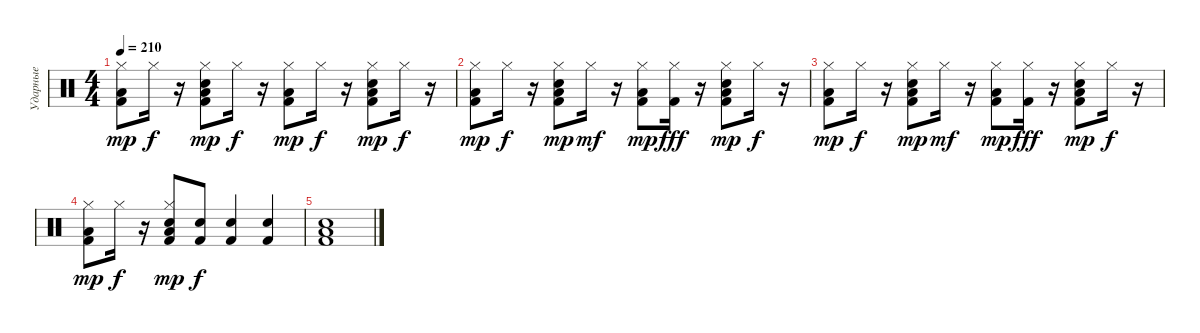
\track ("Ударные" "Ударные") {instrument percussion}
\staff {score}
\articulation defaults
\ts (4 4)
\tempo 210
\clef neutral
\ks c
("Kick (hit) 2" "Hi-Hat (closed)" "Low Floor Tom (hit)").8{dy mp} "Hi-Hat (closed)".16{dy f} r.16 ("Kick (hit) 2" "Snare (hit) 2" "Hi-Hat (closed)" "Low Floor Tom (hit)").8{dy mp} "Hi-Hat (closed)".16{dy f} r.16 ("Kick (hit) 2" "Hi-Hat (closed)" "Low Floor Tom (hit)").8{dy mp} "Hi-Hat (closed)".16{dy f} r.16 ("Kick (hit) 2" "Snare (hit) 2" "Hi-Hat (closed)" "Low Floor Tom (hit)").8{dy mp} "Hi-Hat (closed)".16{dy f} r.16 |
("Kick (hit) 2" "Hi-Hat (closed)" "Low Floor Tom (hit)").8{dy mp} "Hi-Hat (closed)".16{dy f} r.16 ("Kick (hit) 2" "Snare (hit) 2" "Hi-Hat (closed)" "Low Floor Tom (hit)").8{dy mp} "Hi-Hat (closed)".16{dy mf} r.16 ("Kick (hit) 2" "Hi-Hat (closed)" "Low Floor Tom (hit)").8{dy mp} ("Kick (hit) 2" "Hi-Hat (closed)").16{dy fff} r.16 ("Kick (hit) 2" "Snare (hit) 2" "Hi-Hat (closed)" "Low Floor Tom (hit)").8{dy mp} "Hi-Hat (closed)".16{dy f} r.16 |
("Kick (hit) 2" "Hi-Hat (closed)" "Low Floor Tom (hit)").8{dy mp} "Hi-Hat (closed)".16{dy f} r.16 ("Kick (hit) 2" "Snare (hit) 2" "Hi-Hat (closed)" "Low Floor Tom (hit)").8{dy mp} "Hi-Hat (closed)".16{dy mf} r.16 ("Kick (hit) 2" "Hi-Hat (closed)" "Low Floor Tom (hit)").8{dy mp} ("Kick (hit) 2" "Hi-Hat (closed)").16{dy fff} r.16 ("Kick (hit) 2" "Snare (hit) 2" "Hi-Hat (closed)" "Low Floor Tom (hit)").8{dy mp} "Hi-Hat (closed)".16{dy f} r.16 |
("Kick (hit) 2" "Hi-Hat (closed)" "Low Floor Tom (hit)").8{dy mp} "Hi-Hat (closed)".16{dy f} r.16 ("Kick (hit) 2" "Snare (hit) 2" "Hi-Hat (closed)" "Low Floor Tom (hit)").8{dy mp} ("Snare (hit) 2" "Kick (hit) 2").8{dy f} ("Snare (hit) 2" "Kick (hit) 2").4 ("Snare (hit) 2" "Kick (hit) 2").4 |
("Kick (hit) 2" "Snare (hit) 2" "Low Floor Tom (hit)").1
